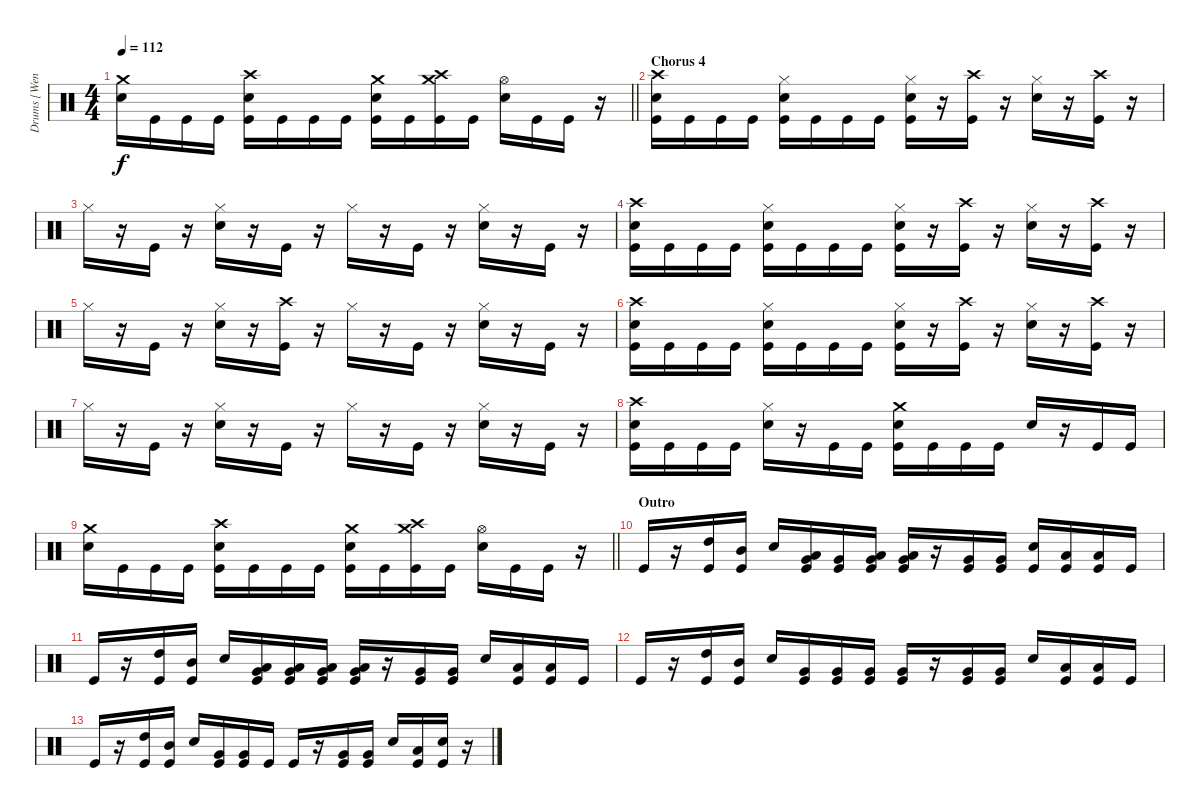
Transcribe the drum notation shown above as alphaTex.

\track ("Drums [Wengren]" "Drums [Wen") {instrument percussion}
\staff {score}
\articulation defaults
\ts (4 4)
\tempo 112
\clef neutral
\barLineRight lightlight
\ks c
("Crash medium (hit)" "Electric Snare (hit)").16{dy f} "Kick (hit)".16 "Kick (hit)".16 "Kick (hit)".16 ("Crash high (hit)" "Electric Snare (hit)" "Kick (hit)").16 "Kick (hit)".16 "Kick (hit)".16 "Kick (hit)".16 ("Crash medium (hit)" "Electric Snare (hit)" "Kick (hit)").16 "Kick (hit)".16 ("Crash medium (hit)" "Crash high (hit)" "Kick (hit)").16 "Kick (hit)".16 ("Hi-Hat (open)" "Electric Snare (hit)").16 "Kick (hit)".16 "Kick (hit)".16 r.16 |
\section ("" "Chorus 4")
("Crash high (hit)" "Electric Snare (hit)" "Kick (hit)").16 "Kick (hit)".16 "Kick (hit)".16 "Kick (hit)".16 ("Hi-Hat (closed)" "Electric Snare (hit)" "Kick (hit)").16 "Kick (hit)".16 "Kick (hit)".16 "Kick (hit)".16 ("Hi-Hat (closed)" "Electric Snare (hit)" "Kick (hit)").16 r.16 ("Crash high (hit)" "Kick (hit)").16 r.16 ("Hi-Hat (closed)" "Electric Snare (hit)").16 r.16 ("Crash high (hit)" "Kick (hit)").16 r.16 |
"Hi-Hat (closed)".16 r.16 "Kick (hit)".16 r.16 ("Hi-Hat (closed)" "Electric Snare (hit)").16 r.16 "Kick (hit)".16 r.16 "Hi-Hat (closed)".16 r.16 "Kick (hit)".16 r.16 ("Hi-Hat (closed)" "Electric Snare (hit)").16 r.16 "Kick (hit)".16 r.16 |
("Crash high (hit)" "Electric Snare (hit)" "Kick (hit)").16 "Kick (hit)".16 "Kick (hit)".16 "Kick (hit)".16 ("Hi-Hat (closed)" "Electric Snare (hit)" "Kick (hit)").16 "Kick (hit)".16 "Kick (hit)".16 "Kick (hit)".16 ("Hi-Hat (closed)" "Electric Snare (hit)" "Kick (hit)").16 r.16 ("Crash high (hit)" "Kick (hit)").16 r.16 ("Hi-Hat (closed)" "Electric Snare (hit)").16 r.16 ("Crash high (hit)" "Kick (hit)").16 r.16 |
"Hi-Hat (closed)".16 r.16 "Kick (hit)".16 r.16 ("Hi-Hat (closed)" "Electric Snare (hit)").16 r.16 ("Crash high (hit)" "Kick (hit)").16 r.16 "Hi-Hat (closed)".16 r.16 "Kick (hit)".16 r.16 ("Hi-Hat (closed)" "Electric Snare (hit)").16 r.16 "Kick (hit)".16 r.16 |
("Crash high (hit)" "Electric Snare (hit)" "Kick (hit)").16 "Kick (hit)".16 "Kick (hit)".16 "Kick (hit)".16 ("Hi-Hat (closed)" "Electric Snare (hit)" "Kick (hit)").16 "Kick (hit)".16 "Kick (hit)".16 "Kick (hit)".16 ("Hi-Hat (closed)" "Electric Snare (hit)" "Kick (hit)").16 r.16 ("Crash high (hit)" "Kick (hit)").16 r.16 ("Hi-Hat (closed)" "Electric Snare (hit)").16 r.16 ("Crash high (hit)" "Kick (hit)").16 r.16 |
"Hi-Hat (closed)".16 r.16 "Kick (hit)".16 r.16 ("Hi-Hat (closed)" "Electric Snare (hit)").16 r.16 "Kick (hit)".16 r.16 "Hi-Hat (closed)".16 r.16 "Kick (hit)".16 r.16 ("Hi-Hat (closed)" "Electric Snare (hit)").16 r.16 "Kick (hit)".16 r.16 |
("Crash high (hit)" "Electric Snare (hit)" "Kick (hit)").16 "Kick (hit)".16 "Kick (hit)".16 "Kick (hit)".16 ("Hi-Hat (closed)" "Electric Snare (hit)").16 r.16 "Kick (hit)".16 "Kick (hit)".16 ("Crash medium (hit)" "Electric Snare (hit)" "Kick (hit)").16 "Kick (hit)".16 "Kick (hit)".16 "Kick (hit)".16 "Electric Snare (hit)".16 r.16 "Kick (hit)".16 "Kick (hit)".16 |
\barLineRight lightlight
("Crash medium (hit)" "Electric Snare (hit)").16 "Kick (hit)".16 "Kick (hit)".16 "Kick (hit)".16 ("Crash high (hit)" "Electric Snare (hit)" "Kick (hit)").16 "Kick (hit)".16 "Kick (hit)".16 "Kick (hit)".16 ("Crash medium (hit)" "Electric Snare (hit)" "Kick (hit)").16 "Kick (hit)".16 ("Crash medium (hit)" "Crash high (hit)" "Kick (hit)").16 "Kick (hit)".16 ("Hi-Hat (open)" "Electric Snare (hit)").16 "Kick (hit)".16 "Kick (hit)".16 r.16 |
\section ("" "Outro")
"Kick (hit)".16 r.16 ("High Tom (hit)" "Kick (hit)").16 ("Mid Tom (hit)" "Kick (hit)").16 "Electric Snare (hit)".16 ("Very Low Tom (hit)" "Low Floor Tom (hit)" "Kick (hit)").16 ("Very Low Tom (hit)" "Kick (hit)").16 ("Very Low Tom (hit)" "Low Floor Tom (hit)" "Kick (hit)").16 ("Very Low Tom (hit)" "Low Floor Tom (hit)" "Kick (hit)").16 r.16 ("Very Low Tom (hit)" "Kick (hit)").16 ("Very Low Tom (hit)" "Kick (hit)").16 ("Electric Snare (hit)" "Kick (hit)").16 ("Low Floor Tom (hit)" "Kick (hit)").16 ("Low Floor Tom (hit)" "Kick (hit)").16 "Kick (hit)".16 |
"Kick (hit)".16 r.16 ("High Tom (hit)" "Kick (hit)").16 ("Mid Tom (hit)" "Kick (hit)").16 "Electric Snare (hit)".16 ("Very Low Tom (hit)" "Low Floor Tom (hit)" "Kick (hit)").16 ("Very Low Tom (hit)" "Low Floor Tom (hit)" "Kick (hit)").16 ("Very Low Tom (hit)" "Low Floor Tom (hit)" "Kick (hit)").16 ("Very Low Tom (hit)" "Low Floor Tom (hit)" "Kick (hit)").16 r.16 ("Very Low Tom (hit)" "Kick (hit)").16 ("Very Low Tom (hit)" "Kick (hit)").16 "Electric Snare (hit)".16 ("Low Floor Tom (hit)" "Kick (hit)").16 ("Low Floor Tom (hit)" "Kick (hit)").16 "Kick (hit)".16 |
"Kick (hit)".16 r.16 ("High Tom (hit)" "Kick (hit)").16 ("Mid Tom (hit)" "Kick (hit)").16 "Electric Snare (hit)".16 ("Very Low Tom (hit)" "Kick (hit)").16 ("Very Low Tom (hit)" "Kick (hit)").16 ("Very Low Tom (hit)" "Kick (hit)").16 ("Very Low Tom (hit)" "Kick (hit)").16 r.16 ("Very Low Tom (hit)" "Kick (hit)").16 ("Very Low Tom (hit)" "Kick (hit)").16 "Electric Snare (hit)".16 ("Low Floor Tom (hit)" "Kick (hit)").16 ("Low Floor Tom (hit)" "Kick (hit)").16 "Kick (hit)".16 |
"Kick (hit)".16 r.16 ("High Tom (hit)" "Kick (hit)").16 ("Mid Tom (hit)" "Kick (hit)").16 "Electric Snare (hit)".16 ("Very Low Tom (hit)" "Kick (hit)").16 ("Very Low Tom (hit)" "Kick (hit)").16 "Kick (hit)".16 "Kick (hit)".16 r.16 ("Very Low Tom (hit)" "Kick (hit)").16 ("Very Low Tom (hit)" "Kick (hit)").16 "Electric Snare (hit)".16 ("Low Floor Tom (hit)" "Kick (hit)").16 ("Electric Snare (hit)" "Kick (hit)").16 r.16
